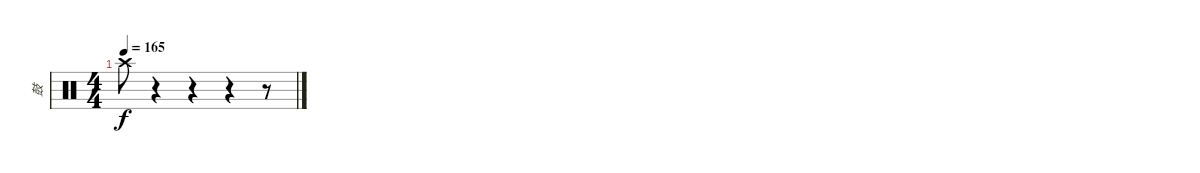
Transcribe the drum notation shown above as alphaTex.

\track ("鼓" "鼓") {instrument percussion}
\staff {score}
\articulation defaults
\ts (4 4)
\tempo 165
\clef neutral
\ks c "Crash high (hit)".8{dy f}
r.4 r.4 r.4 r.8
